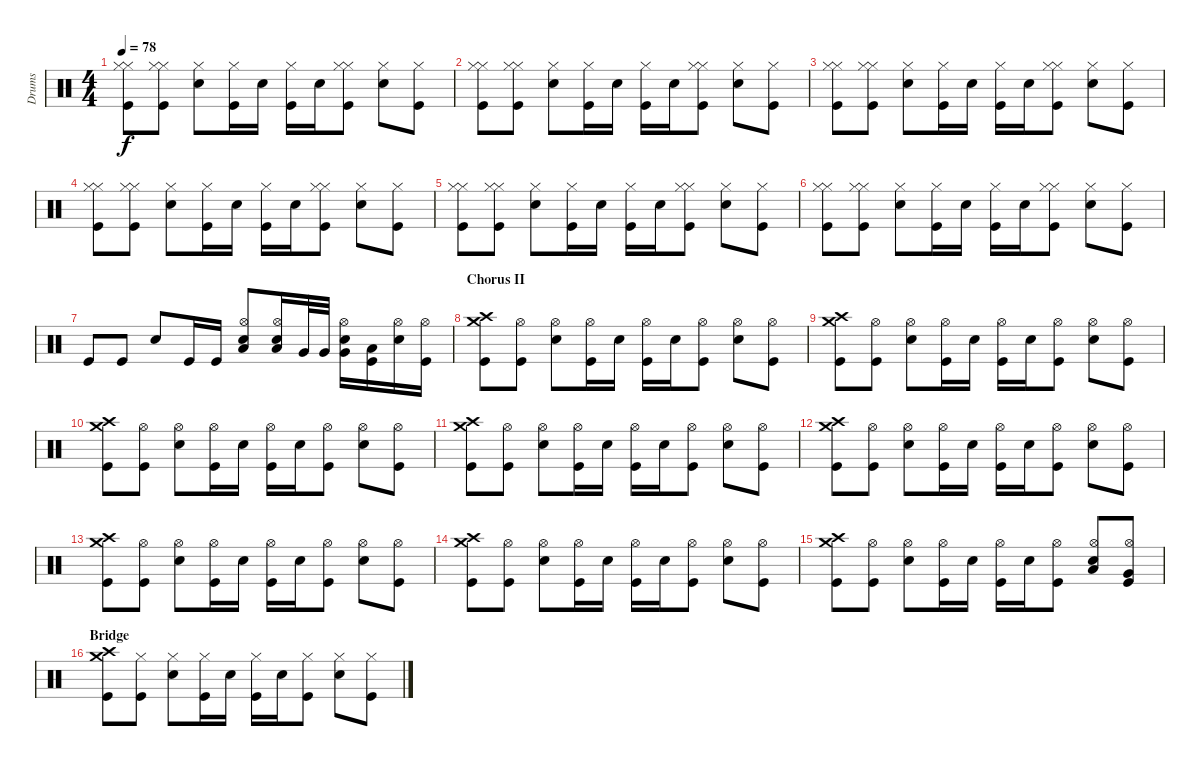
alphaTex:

\track ("Drums" "Drums") {instrument percussion}
\staff {score}
\articulation defaults
\ts (4 4)
\tempo 78
\clef neutral
\ks c
("Hi-Hat (closed)" "Hi-Hat (closed)" "Kick (hit)").8{dy f} ("Hi-Hat (closed)" "Hi-Hat (closed)" "Kick (hit)").8 ("Snare (hit) 2" "Hi-Hat (closed)").8 ("Hi-Hat (closed)" "Kick (hit)").16 "Snare (hit) 2".16 ("Hi-Hat (closed)" "Kick (hit)").16 "Snare (hit) 2".16 ("Hi-Hat (closed)" "Hi-Hat (closed)" "Kick (hit)").8 ("Snare (hit) 2" "Hi-Hat (closed)").8 ("Hi-Hat (closed)" "Kick (hit)").8 |
("Hi-Hat (closed)" "Hi-Hat (closed)" "Kick (hit)").8 ("Hi-Hat (closed)" "Hi-Hat (closed)" "Kick (hit)").8 ("Snare (hit) 2" "Hi-Hat (closed)").8 ("Hi-Hat (closed)" "Kick (hit)").16 "Snare (hit) 2".16 ("Hi-Hat (closed)" "Kick (hit)").16 "Snare (hit) 2".16 ("Hi-Hat (closed)" "Hi-Hat (closed)" "Kick (hit)").8 ("Snare (hit) 2" "Hi-Hat (closed)").8 ("Hi-Hat (closed)" "Kick (hit)").8 |
("Hi-Hat (closed)" "Hi-Hat (closed)" "Kick (hit)").8 ("Hi-Hat (closed)" "Hi-Hat (closed)" "Kick (hit)").8 ("Snare (hit) 2" "Hi-Hat (closed)").8 ("Hi-Hat (closed)" "Kick (hit)").16 "Snare (hit) 2".16 ("Hi-Hat (closed)" "Kick (hit)").16 "Snare (hit) 2".16 ("Hi-Hat (closed)" "Hi-Hat (closed)" "Kick (hit)").8 ("Snare (hit) 2" "Hi-Hat (closed)").8 ("Hi-Hat (closed)" "Kick (hit)").8 |
("Hi-Hat (closed)" "Hi-Hat (closed)" "Kick (hit)").8 ("Hi-Hat (closed)" "Hi-Hat (closed)" "Kick (hit)").8 ("Snare (hit) 2" "Hi-Hat (closed)").8 ("Hi-Hat (closed)" "Kick (hit)").16 "Snare (hit) 2".16 ("Hi-Hat (closed)" "Kick (hit)").16 "Snare (hit) 2".16 ("Hi-Hat (closed)" "Hi-Hat (closed)" "Kick (hit)").8 ("Snare (hit) 2" "Hi-Hat (closed)").8 ("Hi-Hat (closed)" "Kick (hit)").8 |
("Hi-Hat (closed)" "Hi-Hat (closed)" "Kick (hit)").8 ("Hi-Hat (closed)" "Hi-Hat (closed)" "Kick (hit)").8 ("Snare (hit) 2" "Hi-Hat (closed)").8 ("Hi-Hat (closed)" "Kick (hit)").16 "Snare (hit) 2".16 ("Hi-Hat (closed)" "Kick (hit)").16 "Snare (hit) 2".16 ("Hi-Hat (closed)" "Hi-Hat (closed)" "Kick (hit)").8 ("Snare (hit) 2" "Hi-Hat (closed)").8 ("Hi-Hat (closed)" "Kick (hit)").8 |
("Hi-Hat (closed)" "Hi-Hat (closed)" "Kick (hit)").8 ("Hi-Hat (closed)" "Hi-Hat (closed)" "Kick (hit)").8 ("Snare (hit) 2" "Hi-Hat (closed)").8 ("Hi-Hat (closed)" "Kick (hit)").16 "Snare (hit) 2".16 ("Hi-Hat (closed)" "Kick (hit)").16 "Snare (hit) 2".16 ("Hi-Hat (closed)" "Hi-Hat (closed)" "Kick (hit)").8 ("Snare (hit) 2" "Hi-Hat (closed)").8 ("Hi-Hat (closed)" "Kick (hit)").8 |
"Kick (hit)".8 "Kick (hit)".8 "Electric Snare (hit)".8 "Kick (hit)".16 "Kick (hit)".16 ("Hi-Hat (open)" "Snare (hit) 2" "Low Tom (hit)").8 ("Hi-Hat (open)" "Snare (hit) 2" "Low Floor Tom (hit)").16 "Very Low Tom (hit)".32 "Very Low Tom (hit)".32 ("Hi-Hat (open)" "Electric Snare (hit)" "Very Low Tom (hit)").16 ("Low Floor Tom (hit)" "Kick (hit)").16 ("Electric Snare (hit)" "Hi-Hat (open)").16 ("Hi-Hat (open)" "Kick (hit)").16 |
\section ("" "Chorus II")
("Crash high (hit)" "Crash medium (hit)" "Kick (hit)").8 ("Hi-Hat (open)" "Kick (hit)").8 ("Electric Snare (hit)" "Hi-Hat (open)").8 ("Hi-Hat (open)" "Kick (hit)").16 "Electric Snare (hit)".16 ("Hi-Hat (open)" "Kick (hit)").16 "Electric Snare (hit)".16 ("Hi-Hat (open)" "Kick (hit)").8 ("Electric Snare (hit)" "Hi-Hat (open)").8 ("Hi-Hat (open)" "Kick (hit)").8 |
("Crash high (hit)" "Crash medium (hit)" "Kick (hit)").8 ("Hi-Hat (open)" "Kick (hit)").8 ("Electric Snare (hit)" "Hi-Hat (open)").8 ("Hi-Hat (open)" "Kick (hit)").16 "Electric Snare (hit)".16 ("Hi-Hat (open)" "Kick (hit)").16 "Electric Snare (hit)".16 ("Hi-Hat (open)" "Kick (hit)").8 ("Electric Snare (hit)" "Hi-Hat (open)").8 ("Hi-Hat (open)" "Kick (hit)").8 |
("Crash high (hit)" "Crash medium (hit)" "Kick (hit)").8 ("Hi-Hat (open)" "Kick (hit)").8 ("Electric Snare (hit)" "Hi-Hat (open)").8 ("Hi-Hat (open)" "Kick (hit)").16 "Electric Snare (hit)".16 ("Hi-Hat (open)" "Kick (hit)").16 "Electric Snare (hit)".16 ("Hi-Hat (open)" "Kick (hit)").8 ("Electric Snare (hit)" "Hi-Hat (open)").8 ("Hi-Hat (open)" "Kick (hit)").8 |
("Crash high (hit)" "Crash medium (hit)" "Kick (hit)").8 ("Hi-Hat (open)" "Kick (hit)").8 ("Electric Snare (hit)" "Hi-Hat (open)").8 ("Hi-Hat (open)" "Kick (hit)").16 "Electric Snare (hit)".16 ("Hi-Hat (open)" "Kick (hit)").16 "Electric Snare (hit)".16 ("Hi-Hat (open)" "Kick (hit)").8 ("Electric Snare (hit)" "Hi-Hat (open)").8 ("Hi-Hat (open)" "Kick (hit)").8 |
("Crash high (hit)" "Crash medium (hit)" "Kick (hit)").8 ("Hi-Hat (open)" "Kick (hit)").8 ("Electric Snare (hit)" "Hi-Hat (open)").8 ("Hi-Hat (open)" "Kick (hit)").16 "Electric Snare (hit)".16 ("Hi-Hat (open)" "Kick (hit)").16 "Electric Snare (hit)".16 ("Hi-Hat (open)" "Kick (hit)").8 ("Electric Snare (hit)" "Hi-Hat (open)").8 ("Hi-Hat (open)" "Kick (hit)").8 |
("Crash high (hit)" "Crash medium (hit)" "Kick (hit)").8 ("Hi-Hat (open)" "Kick (hit)").8 ("Electric Snare (hit)" "Hi-Hat (open)").8 ("Hi-Hat (open)" "Kick (hit)").16 "Electric Snare (hit)".16 ("Hi-Hat (open)" "Kick (hit)").16 "Electric Snare (hit)".16 ("Hi-Hat (open)" "Kick (hit)").8 ("Electric Snare (hit)" "Hi-Hat (open)").8 ("Hi-Hat (open)" "Kick (hit)").8 |
("Crash high (hit)" "Crash medium (hit)" "Kick (hit)").8 ("Hi-Hat (open)" "Kick (hit)").8 ("Electric Snare (hit)" "Hi-Hat (open)").8 ("Hi-Hat (open)" "Kick (hit)").16 "Electric Snare (hit)".16 ("Hi-Hat (open)" "Kick (hit)").16 "Electric Snare (hit)".16 ("Hi-Hat (open)" "Kick (hit)").8 ("Electric Snare (hit)" "Hi-Hat (open)").8 ("Hi-Hat (open)" "Kick (hit)").8 |
("Crash high (hit)" "Crash medium (hit)" "Kick (hit)").8 ("Hi-Hat (open)" "Kick (hit)").8 ("Electric Snare (hit)" "Hi-Hat (open)").8 ("Hi-Hat (open)" "Kick (hit)").16 "Electric Snare (hit)".16 ("Hi-Hat (open)" "Kick (hit)").16 "Electric Snare (hit)".16 ("Hi-Hat (open)" "Kick (hit)").8 ("Low Tom (hit)" "Electric Snare (hit)" "Hi-Hat (open)").8 ("Very Low Tom (hit)" "Hi-Hat (open)" "Kick (hit)").8 |
\section ("" "Bridge")
("Crash high (hit)" "Crash medium (hit)" "Kick (hit)").8 ("Hi-Hat (closed)" "Kick (hit)").8 ("Electric Snare (hit)" "Hi-Hat (closed)").8 ("Hi-Hat (closed)" "Kick (hit)").16 "Electric Snare (hit)".16 ("Hi-Hat (closed)" "Kick (hit)").16 "Electric Snare (hit)".16 ("Hi-Hat (closed)" "Kick (hit)").8 ("Electric Snare (hit)" "Hi-Hat (closed)").8 ("Hi-Hat (closed)" "Kick (hit)").8
